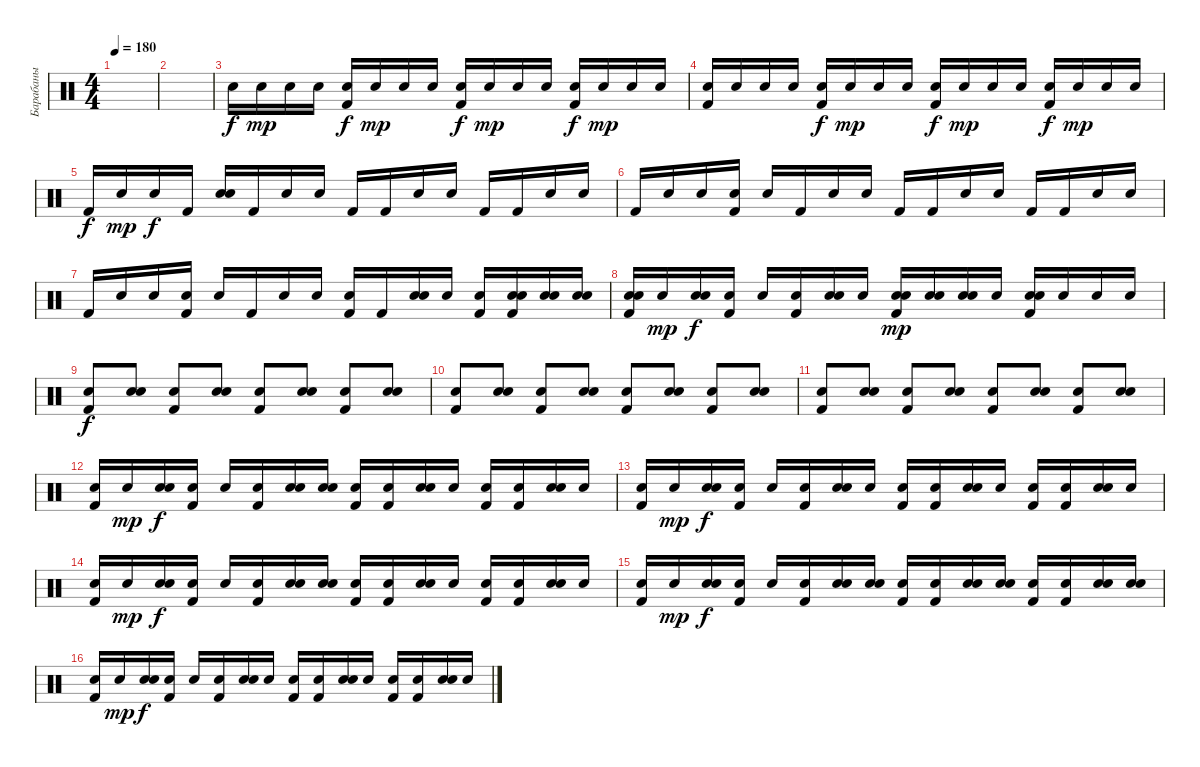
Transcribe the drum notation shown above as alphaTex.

\track ("Барабаны" "Барабаны") {instrument percussion}
\staff {score}
\articulation defaults
\ts (4 4)
\tempo 180
\clef neutral
\ks c
|
|
"Snare (hit) 2".16 "Snare (hit) 2".16{dy mp} "Snare (hit) 2".16 "Snare (hit) 2".16 ("Snare (hit) 2" "Kick (hit) 2").16{dy f} "Snare (hit) 2".16{dy mp} "Snare (hit) 2".16 "Snare (hit) 2".16 ("Snare (hit) 2" "Kick (hit) 2").16{dy f} "Snare (hit) 2".16{dy mp} "Snare (hit) 2".16 "Snare (hit) 2".16 ("Snare (hit) 2" "Kick (hit) 2").16{dy f} "Snare (hit) 2".16{dy mp} "Snare (hit) 2".16 "Snare (hit) 2".16 |
("Snare (hit) 2" "Kick (hit) 2").16 "Snare (hit) 2".16 "Snare (hit) 2".16 "Snare (hit) 2".16 ("Snare (hit) 2" "Kick (hit) 2").16{dy f} "Snare (hit) 2".16{dy mp} "Snare (hit) 2".16 "Snare (hit) 2".16 ("Snare (hit) 2" "Kick (hit) 2").16{dy f} "Snare (hit) 2".16{dy mp} "Snare (hit) 2".16 "Snare (hit) 2".16 ("Snare (hit) 2" "Kick (hit) 2").16{dy f} "Snare (hit) 2".16{dy mp} "Snare (hit) 2".16 "Snare (hit) 2".16 |
"Kick (hit) 2".16{dy f} "Snare (hit)".16{dy mp} "Snare (hit) 2".16{dy f} "Kick (hit) 2".16 ("Snare (hit)" "Snare (hit)").16 "Kick (hit) 2".16 "Snare (hit) 2".16 "Snare (hit)".16 "Kick (hit) 2".16 "Kick (hit) 2".16 "Snare (hit) 2".16 "Snare (hit)".16 "Kick (hit) 2".16 "Kick (hit) 2".16 "Snare (hit) 2".16 "Snare (hit)".16 |
"Kick (hit) 2".16 "Snare (hit)".16 "Snare (hit) 2".16 ("Snare (hit)" "Kick (hit) 2").16 "Snare (hit)".16 "Kick (hit) 2".16 "Snare (hit) 2".16 "Snare (hit)".16 "Kick (hit) 2".16 "Kick (hit) 2".16 "Snare (hit) 2".16 "Snare (hit)".16 "Kick (hit) 2".16 "Kick (hit) 2".16 "Snare (hit) 2".16 "Snare (hit)".16 |
"Kick (hit) 2".16 "Snare (hit)".16 "Snare (hit) 2".16 ("Snare (hit)" "Kick (hit) 2").16 "Snare (hit)".16 "Kick (hit) 2".16 "Snare (hit) 2".16 "Snare (hit)".16 ("Snare (hit)" "Kick (hit) 2").16 "Kick (hit) 2".16 ("Snare (hit)" "Snare (hit) 2").16 "Snare (hit)".16 ("Snare (hit)" "Kick (hit) 2").16 ("Snare (hit)" "Snare (hit)" "Kick (hit) 2").16 ("Snare (hit)" "Snare (hit) 2").16 ("Snare (hit)" "Snare (hit)").16 |
("Snare (hit)" "Snare (hit)" "Kick (hit) 2").16 "Snare (hit)".16{dy mp} ("Snare (hit)" "Snare (hit) 2").16{dy f} ("Snare (hit)" "Kick (hit) 2").16 "Snare (hit)".16 ("Snare (hit)" "Kick (hit) 2").16 ("Snare (hit)" "Snare (hit) 2").16 "Snare (hit)".16 ("Snare (hit)" "Snare (hit) 2" "Kick (hit) 2").16{dy mp} ("Snare (hit)" "Snare (hit) 2").16 ("Snare (hit)" "Snare (hit) 2").16 "Snare (hit) 2".16 ("Snare (hit)" "Snare (hit) 2" "Kick (hit) 2").16 "Snare (hit) 2".16 "Snare (hit) 2".16 "Snare (hit) 2".16 |
("Snare (hit)" "Kick (hit) 2").8{dy f} ("Snare (hit)" "Snare (hit) 2").8 ("Snare (hit)" "Kick (hit) 2").8 ("Snare (hit)" "Snare (hit) 2").8 ("Snare (hit)" "Kick (hit) 2").8 ("Snare (hit)" "Snare (hit) 2").8 ("Snare (hit)" "Kick (hit) 2").8 ("Snare (hit)" "Snare (hit) 2").8 |
("Snare (hit)" "Kick (hit) 2").8 ("Snare (hit)" "Snare (hit) 2").8 ("Snare (hit)" "Kick (hit) 2").8 ("Snare (hit)" "Snare (hit) 2").8 ("Snare (hit)" "Kick (hit) 2").8 ("Snare (hit)" "Snare (hit) 2").8 ("Snare (hit)" "Kick (hit) 2").8 ("Snare (hit)" "Snare (hit) 2").8 |
("Snare (hit)" "Kick (hit) 2").8 ("Snare (hit)" "Snare (hit) 2").8 ("Snare (hit)" "Kick (hit) 2").8 ("Snare (hit)" "Snare (hit) 2").8 ("Snare (hit)" "Kick (hit) 2").8 ("Snare (hit)" "Snare (hit) 2").8 ("Snare (hit)" "Kick (hit) 2").8 ("Snare (hit)" "Snare (hit) 2").8 |
("Snare (hit)" "Kick (hit) 2").16 "Snare (hit)".16{dy mp} ("Snare (hit)" "Snare (hit) 2").16{dy f} ("Snare (hit)" "Kick (hit) 2").16 "Snare (hit)".16 ("Snare (hit)" "Kick (hit) 2").16 ("Snare (hit)" "Snare (hit) 2").16 ("Snare (hit)" "Snare (hit)").16 ("Snare (hit)" "Kick (hit) 2").16 ("Snare (hit)" "Kick (hit) 2").16 ("Snare (hit)" "Snare (hit) 2").16 "Snare (hit)".16 ("Snare (hit)" "Kick (hit) 2").16 ("Snare (hit)" "Kick (hit) 2").16 ("Snare (hit)" "Snare (hit) 2").16 "Snare (hit)".16 |
("Snare (hit)" "Kick (hit) 2").16 "Snare (hit)".16{dy mp} ("Snare (hit)" "Snare (hit) 2").16{dy f} ("Snare (hit)" "Kick (hit) 2").16 "Snare (hit)".16 ("Snare (hit)" "Kick (hit) 2").16 ("Snare (hit)" "Snare (hit) 2").16 "Snare (hit)".16 ("Snare (hit)" "Kick (hit) 2").16 ("Snare (hit)" "Kick (hit) 2").16 ("Snare (hit)" "Snare (hit) 2").16 "Snare (hit)".16 ("Snare (hit)" "Kick (hit) 2").16 ("Snare (hit)" "Kick (hit) 2").16 ("Snare (hit)" "Snare (hit) 2").16 "Snare (hit)".16 |
("Snare (hit)" "Kick (hit) 2").16 "Snare (hit)".16{dy mp} ("Snare (hit)" "Snare (hit) 2").16{dy f} ("Snare (hit)" "Kick (hit) 2").16 "Snare (hit)".16 ("Snare (hit)" "Kick (hit) 2").16 ("Snare (hit)" "Snare (hit) 2").16 ("Snare (hit)" "Snare (hit)").16 ("Snare (hit)" "Kick (hit) 2").16 ("Snare (hit)" "Kick (hit) 2").16 ("Snare (hit)" "Snare (hit) 2").16 "Snare (hit)".16 ("Snare (hit)" "Kick (hit) 2").16 ("Snare (hit)" "Kick (hit) 2").16 ("Snare (hit)" "Snare (hit) 2").16 "Snare (hit)".16 |
("Snare (hit)" "Kick (hit) 2").16 "Snare (hit)".16{dy mp} ("Snare (hit)" "Snare (hit) 2").16{dy f} ("Snare (hit)" "Kick (hit) 2").16 "Snare (hit)".16 ("Snare (hit)" "Kick (hit) 2").16 ("Snare (hit)" "Snare (hit) 2").16 ("Snare (hit)" "Snare (hit)").16 ("Snare (hit)" "Kick (hit) 2").16 ("Snare (hit)" "Kick (hit) 2").16 ("Snare (hit)" "Snare (hit) 2").16 ("Snare (hit)" "Snare (hit)").16 ("Snare (hit)" "Kick (hit) 2").16 ("Snare (hit)" "Kick (hit) 2").16 ("Snare (hit)" "Snare (hit) 2").16 ("Snare (hit)" "Snare (hit)").16 |
("Snare (hit)" "Kick (hit) 2").16 "Snare (hit)".16{dy mp} ("Snare (hit)" "Snare (hit) 2").16{dy f} ("Snare (hit)" "Kick (hit) 2").16 "Snare (hit)".16 ("Snare (hit)" "Kick (hit) 2").16 ("Snare (hit)" "Snare (hit) 2").16 "Snare (hit)".16 ("Snare (hit)" "Kick (hit) 2").16 ("Snare (hit)" "Kick (hit) 2").16 ("Snare (hit)" "Snare (hit) 2").16 "Snare (hit)".16 ("Snare (hit)" "Kick (hit) 2").16 ("Snare (hit)" "Kick (hit) 2").16 ("Snare (hit)" "Snare (hit) 2").16 "Snare (hit)".16
